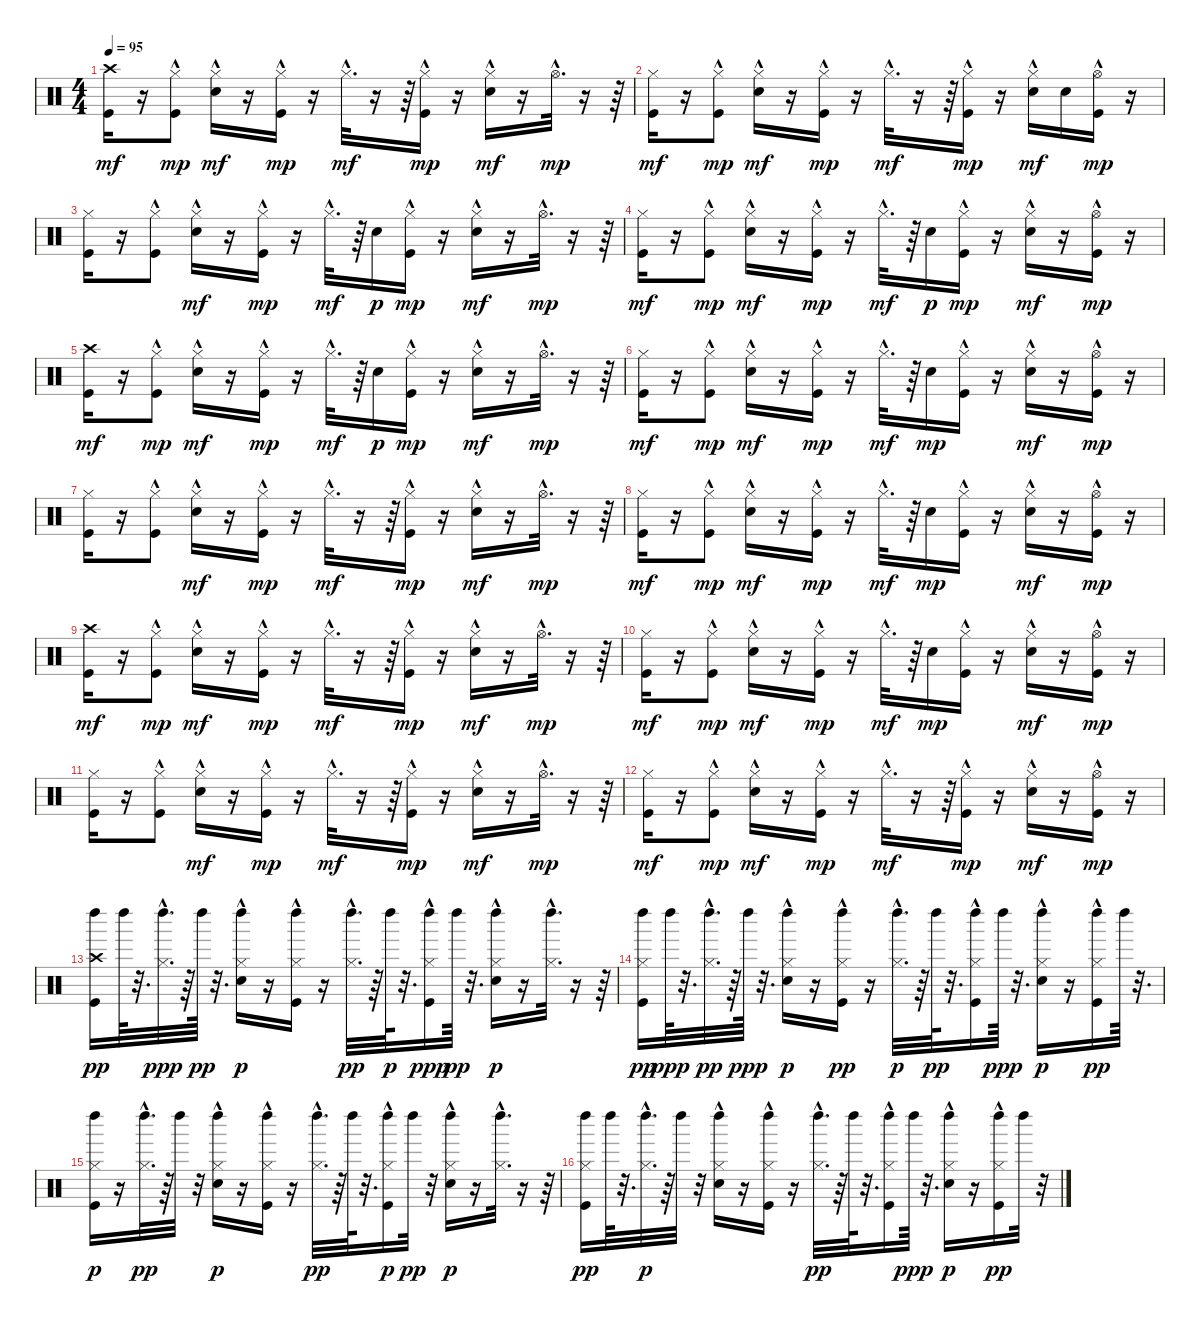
\track "" {instrument percussion}
\staff {score}
\articulation defaults
\ts (4 4)
\tempo 95
\clef neutral
\ks c
("Kick (hit)" "Crash high (hit)").16{dy mf} r.16 ("Kick (hit)" "Hi-Hat (closed)"{hac}).8{dy mp} ("Electric Snare (hit)" "Hi-Hat (closed)"{hac}).16{dy mf} r.16 ("Kick (hit)" "Hi-Hat (closed)"{hac}).16{dy mp} r.16 "Hi-Hat (closed)"{hac}.32{d dy mf} r.16 r.64 ("Kick (hit)" "Hi-Hat (closed)"{hac}).16{dy mp} r.16 ("Electric Snare (hit)" "Hi-Hat (closed)"{hac}).16{dy mf} r.16 "Hi-Hat (open)"{hac}.32{d dy mp} r.16 r.64 |
("Kick (hit)" "Hi-Hat (closed)").16{dy mf} r.16 ("Kick (hit)" "Hi-Hat (closed)"{hac}).8{dy mp} ("Electric Snare (hit)" "Hi-Hat (closed)"{hac}).16{dy mf} r.16 ("Kick (hit)" "Hi-Hat (closed)"{hac}).16{dy mp} r.16 "Hi-Hat (closed)"{hac}.32{d dy mf} r.16 r.64 ("Kick (hit)" "Hi-Hat (closed)"{hac}).16{dy mp} r.16 ("Electric Snare (hit)" "Hi-Hat (closed)"{hac}).16{dy mf} "Electric Snare (hit)".16 ("Kick (hit)" "Hi-Hat (open)"{hac}).16{dy mp} r.16 |
("Kick (hit)" "Hi-Hat (closed)").16 r.16 ("Kick (hit)" "Hi-Hat (closed)"{hac}).8 ("Electric Snare (hit)" "Hi-Hat (closed)"{hac}).16{dy mf} r.16 ("Kick (hit)" "Hi-Hat (closed)"{hac}).16{dy mp} r.16 "Hi-Hat (closed)"{hac}.32{d dy mf} r.64 "Electric Snare (hit)".16{dy p} ("Kick (hit)" "Hi-Hat (closed)"{hac}).16{dy mp} r.16 ("Electric Snare (hit)" "Hi-Hat (closed)"{hac}).16{dy mf} r.16 "Hi-Hat (open)"{hac}.32{d dy mp} r.16 r.64 |
("Kick (hit)" "Hi-Hat (closed)").16{dy mf} r.16 ("Kick (hit)" "Hi-Hat (closed)"{hac}).8{dy mp} ("Electric Snare (hit)" "Hi-Hat (closed)"{hac}).16{dy mf} r.16 ("Kick (hit)" "Hi-Hat (closed)"{hac}).16{dy mp} r.16 "Hi-Hat (closed)"{hac}.32{d dy mf} r.64 "Electric Snare (hit)".16{dy p} ("Kick (hit)" "Hi-Hat (closed)"{hac}).16{dy mp} r.16 ("Electric Snare (hit)" "Hi-Hat (closed)"{hac}).16{dy mf} r.16 ("Kick (hit)" "Hi-Hat (open)"{hac}).16{dy mp} r.16 |
("Kick (hit)" "Crash high (hit)").16{dy mf} r.16 ("Kick (hit)" "Hi-Hat (closed)"{hac}).8{dy mp} ("Electric Snare (hit)" "Hi-Hat (closed)"{hac}).16{dy mf} r.16 ("Kick (hit)" "Hi-Hat (closed)"{hac}).16{dy mp} r.16 "Hi-Hat (closed)"{hac}.32{d dy mf} r.64 "Electric Snare (hit)".16{dy p} ("Kick (hit)" "Hi-Hat (closed)"{hac}).16{dy mp} r.16 ("Electric Snare (hit)" "Hi-Hat (closed)"{hac}).16{dy mf} r.16 "Hi-Hat (open)"{hac}.32{d dy mp} r.16 r.64 |
("Kick (hit)" "Hi-Hat (closed)").16{dy mf} r.16 ("Kick (hit)" "Hi-Hat (closed)"{hac}).8{dy mp} ("Electric Snare (hit)" "Hi-Hat (closed)"{hac}).16{dy mf} r.16 ("Kick (hit)" "Hi-Hat (closed)"{hac}).16{dy mp} r.16 "Hi-Hat (closed)"{hac}.32{d dy mf} r.64 "Electric Snare (hit)".16{dy mp} ("Kick (hit)" "Hi-Hat (closed)"{hac}).16 r.16 ("Electric Snare (hit)" "Hi-Hat (closed)"{hac}).16{dy mf} r.16 ("Kick (hit)" "Hi-Hat (open)"{hac}).16{dy mp} r.16 |
("Kick (hit)" "Hi-Hat (closed)").16 r.16 ("Kick (hit)" "Hi-Hat (closed)"{hac}).8 ("Electric Snare (hit)" "Hi-Hat (closed)"{hac}).16{dy mf} r.16 ("Kick (hit)" "Hi-Hat (closed)"{hac}).16{dy mp} r.16 "Hi-Hat (closed)"{hac}.32{d dy mf} r.16 r.64 ("Kick (hit)" "Hi-Hat (closed)"{hac}).16{dy mp} r.16 ("Electric Snare (hit)" "Hi-Hat (closed)"{hac}).16{dy mf} r.16 "Hi-Hat (open)"{hac}.32{d dy mp} r.16 r.64 |
("Kick (hit)" "Hi-Hat (closed)").16{dy mf} r.16 ("Kick (hit)" "Hi-Hat (closed)"{hac}).8{dy mp} ("Electric Snare (hit)" "Hi-Hat (closed)"{hac}).16{dy mf} r.16 ("Kick (hit)" "Hi-Hat (closed)"{hac}).16{dy mp} r.16 "Hi-Hat (closed)"{hac}.32{d dy mf} r.64 "Electric Snare (hit)".16{dy mp} ("Kick (hit)" "Hi-Hat (closed)"{hac}).16 r.16 ("Electric Snare (hit)" "Hi-Hat (closed)"{hac}).16{dy mf} r.16 ("Kick (hit)" "Hi-Hat (open)"{hac}).16{dy mp} r.16 |
("Kick (hit)" "Crash high (hit)").16{dy mf} r.16 ("Kick (hit)" "Hi-Hat (closed)"{hac}).8{dy mp} ("Electric Snare (hit)" "Hi-Hat (closed)"{hac}).16{dy mf} r.16 ("Kick (hit)" "Hi-Hat (closed)"{hac}).16{dy mp} r.16 "Hi-Hat (closed)"{hac}.32{d dy mf} r.16 r.64 ("Kick (hit)" "Hi-Hat (closed)"{hac}).16{dy mp} r.16 ("Electric Snare (hit)" "Hi-Hat (closed)"{hac}).16{dy mf} r.16 "Hi-Hat (open)"{hac}.32{d dy mp} r.16 r.64 |
("Kick (hit)" "Hi-Hat (closed)").16{dy mf} r.16 ("Kick (hit)" "Hi-Hat (closed)"{hac}).8{dy mp} ("Electric Snare (hit)" "Hi-Hat (closed)"{hac}).16{dy mf} r.16 ("Kick (hit)" "Hi-Hat (closed)"{hac}).16{dy mp} r.16 "Hi-Hat (closed)"{hac}.32{d dy mf} r.64 "Electric Snare (hit)".16{dy mp} ("Kick (hit)" "Hi-Hat (closed)"{hac}).16 r.16 ("Electric Snare (hit)" "Hi-Hat (closed)"{hac}).16{dy mf} r.16 ("Kick (hit)" "Hi-Hat (open)"{hac}).16{dy mp} r.16 |
("Kick (hit)" "Hi-Hat (closed)").16 r.16 ("Kick (hit)" "Hi-Hat (closed)"{hac}).8 ("Electric Snare (hit)" "Hi-Hat (closed)"{hac}).16{dy mf} r.16 ("Kick (hit)" "Hi-Hat (closed)"{hac}).16{dy mp} r.16 "Hi-Hat (closed)"{hac}.32{d dy mf} r.16 r.64 ("Kick (hit)" "Hi-Hat (closed)"{hac}).16{dy mp} r.16 ("Electric Snare (hit)" "Hi-Hat (closed)"{hac}).16{dy mf} r.16 "Hi-Hat (open)"{hac}.32{d dy mp} r.16 r.64 |
("Kick (hit)" "Hi-Hat (closed)").16{dy mf} r.16 ("Kick (hit)" "Hi-Hat (closed)"{hac}).8{dy mp} ("Electric Snare (hit)" "Hi-Hat (closed)"{hac}).16{dy mf} r.16 ("Kick (hit)" "Hi-Hat (closed)"{hac}).16{dy mp} r.16 "Hi-Hat (closed)"{hac}.32{d dy mf} r.16 r.64 ("Kick (hit)" "Hi-Hat (closed)"{hac}).16{dy mp} r.16 ("Electric Snare (hit)" "Hi-Hat (closed)"{hac}).16{dy mf} r.16 ("Kick (hit)" "Hi-Hat (open)"{hac}).16{dy mp} r.16 |
("Kick (hit)" "Crash high (hit)" "Left Maraca (hit)").16{dy pp} "Left Maraca (hit)".64 r.32{d} ("Hi-Hat (closed)"{hac} "Left Maraca (hit)").32{d dy ppp} r.64 "Left Maraca (hit)".64{dy pp} r.32{d} ("Electric Snare (hit)" "Hi-Hat (closed)"{hac} "Left Maraca (hit)").16{dy p} r.16 ("Kick (hit)" "Hi-Hat (closed)"{hac} "Left Maraca (hit)").16 r.16 ("Hi-Hat (closed)"{hac} "Left Maraca (hit)").32{d dy pp} r.64 "Left Maraca (hit)".64{dy p} r.32{d} ("Kick (hit)" "Hi-Hat (closed)"{hac} "Left Maraca (hit)").16{dy ppp} "Left Maraca (hit)".64{dy pp} r.32{d} ("Electric Snare (hit)" "Hi-Hat (closed)"{hac} "Left Maraca (hit)").16{dy p} r.16 ("Hi-Hat (closed)"{hac} "Left Maraca (hit)").32{d} r.16 r.64 |
("Kick (hit)" "Hi-Hat (closed)" "Left Maraca (hit)").16{dy pp} "Left Maraca (hit)".64{dy ppp} r.32{d} ("Hi-Hat (closed)"{hac} "Left Maraca (hit)").32{d dy pp} r.64 "Left Maraca (hit)".64{dy ppp} r.32{d} ("Electric Snare (hit)" "Hi-Hat (closed)"{hac} "Left Maraca (hit)").16{dy p} r.16 ("Kick (hit)" "Hi-Hat (closed)"{hac} "Left Maraca (hit)").16{dy pp} r.16 ("Hi-Hat (closed)"{hac} "Left Maraca (hit)").32{d dy p} r.64 "Left Maraca (hit)".64{dy pp} r.32{d} ("Kick (hit)" "Hi-Hat (closed)"{hac} "Left Maraca (hit)").16 "Left Maraca (hit)".64{dy ppp} r.32{d} ("Electric Snare (hit)" "Hi-Hat (closed)"{hac} "Left Maraca (hit)").16{dy p} r.16 ("Kick (hit)" "Hi-Hat (closed)"{hac} "Left Maraca (hit)").16{dy pp} "Left Maraca (hit)".64 r.32{d} |
("Kick (hit)" "Hi-Hat (closed)" "Left Maraca (hit)").16{dy p} r.16 ("Hi-Hat (closed)"{hac} "Left Maraca (hit)").32{d dy pp} r.64 "Left Maraca (hit)".32 r.32 ("Electric Snare (hit)" "Hi-Hat (closed)"{hac} "Left Maraca (hit)").16{dy p} r.16 ("Kick (hit)" "Hi-Hat (closed)"{hac} "Left Maraca (hit)").16 r.16 ("Hi-Hat (closed)"{hac} "Left Maraca (hit)").32{d dy pp} r.64 "Left Maraca (hit)".64 r.32{d} ("Kick (hit)" "Hi-Hat (closed)"{hac} "Left Maraca (hit)").16{dy p} "Left Maraca (hit)".32{dy pp} r.32 ("Electric Snare (hit)" "Hi-Hat (closed)"{hac} "Left Maraca (hit)").16{dy p} r.16 ("Hi-Hat (closed)"{hac} "Left Maraca (hit)").32{d} r.16 r.64 |
("Kick (hit)" "Hi-Hat (closed)" "Left Maraca (hit)").16{dy pp} "Left Maraca (hit)".64 r.32{d} ("Hi-Hat (closed)"{hac} "Left Maraca (hit)").32{d dy p} r.64 "Left Maraca (hit)".32 r.32 ("Electric Snare (hit)" "Hi-Hat (closed)"{hac} "Left Maraca (hit)").16 r.16 ("Kick (hit)" "Hi-Hat (closed)"{hac} "Left Maraca (hit)").16 r.16 ("Hi-Hat (closed)"{hac} "Left Maraca (hit)").32{d dy pp} r.64 "Left Maraca (hit)".64 r.32{d} ("Kick (hit)" "Hi-Hat (closed)"{hac} "Left Maraca (hit)").16 "Left Maraca (hit)".64{dy ppp} r.32{d} ("Electric Snare (hit)" "Hi-Hat (closed)"{hac} "Left Maraca (hit)").16{dy p} r.16 ("Kick (hit)" "Hi-Hat (closed)"{hac} "Left Maraca (hit)").16{dy pp} "Left Maraca (hit)".32 r.32
